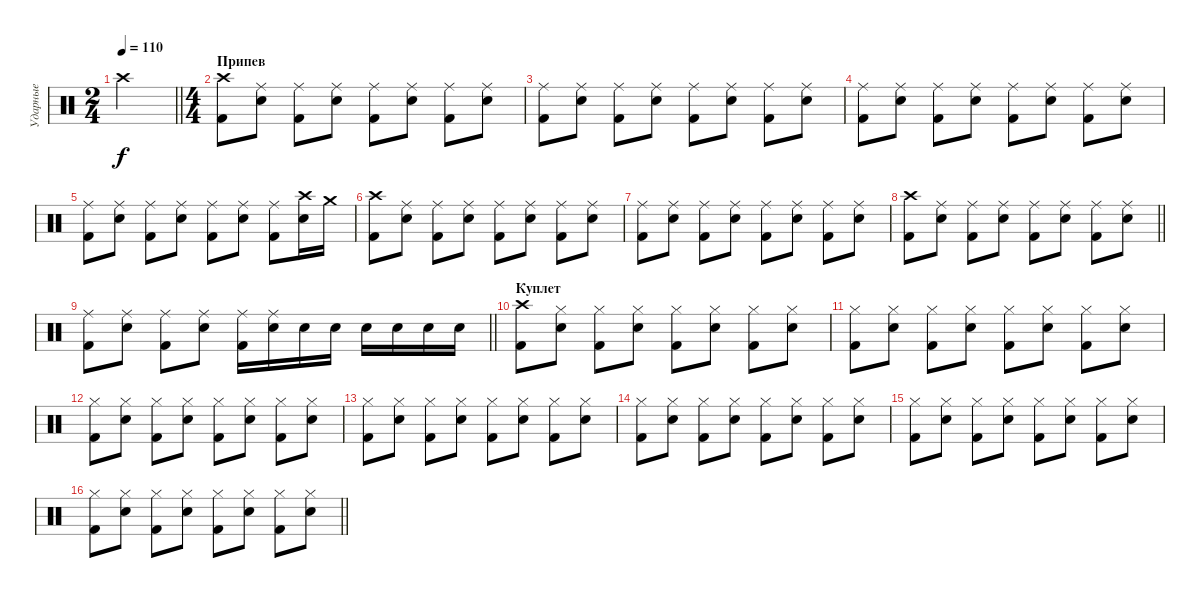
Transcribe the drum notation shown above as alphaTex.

\track ("Ударные" "Ударные") {instrument percussion}
\staff {score}
\articulation defaults
\ts (2 4)
\section ("" "")
\tempo 110
\clef neutral
\barLineRight lightlight
\ks c "Crash high (hit)".2{dy f}
|
\ts (4 4)
\section ("" "Припев")
("Crash high (hit)" "Kick (hit) 2").8 ("Ride (middle)" "Electric Snare (hit)").8 ("Ride (middle)" "Kick (hit) 2").8 ("Ride (middle)" "Electric Snare (hit)").8 ("Ride (middle)" "Kick (hit) 2").8 ("Ride (middle)" "Electric Snare (hit)").8 ("Ride (middle)" "Kick (hit) 2").8 ("Ride (middle)" "Electric Snare (hit)").8 |
("Ride (middle)" "Kick (hit) 2").8 ("Ride (middle)" "Electric Snare (hit)").8 ("Ride (middle)" "Kick (hit) 2").8 ("Ride (middle)" "Electric Snare (hit)").8 ("Ride (middle)" "Kick (hit) 2").8 ("Ride (middle)" "Electric Snare (hit)").8 ("Ride (middle)" "Kick (hit) 2").8 ("Ride (middle)" "Electric Snare (hit)").8 |
("Ride (middle)" "Kick (hit) 2").8 ("Ride (middle)" "Electric Snare (hit)").8 ("Ride (middle)" "Kick (hit) 2").8 ("Ride (middle)" "Electric Snare (hit)").8 ("Ride (middle)" "Kick (hit) 2").8 ("Ride (middle)" "Electric Snare (hit)").8 ("Ride (middle)" "Kick (hit) 2").8 ("Ride (middle)" "Electric Snare (hit)").8 |
("Ride (middle)" "Kick (hit) 2").8 ("Ride (middle)" "Electric Snare (hit)").8 ("Ride (middle)" "Kick (hit) 2").8 ("Ride (middle)" "Electric Snare (hit)").8 ("Ride (middle)" "Kick (hit) 2").8 ("Ride (middle)" "Electric Snare (hit)").8 ("Ride (middle)" "Kick (hit) 2").8 ("Crash high (hit)" "Electric Snare (hit)").16 "Crash medium (hit)".16 |
("Crash high (hit)" "Kick (hit) 2").8 ("Ride (middle)" "Electric Snare (hit)").8 ("Ride (middle)" "Kick (hit) 2").8 ("Ride (middle)" "Electric Snare (hit)").8 ("Ride (middle)" "Kick (hit) 2").8 ("Ride (middle)" "Electric Snare (hit)").8 ("Ride (middle)" "Kick (hit) 2").8 ("Ride (middle)" "Electric Snare (hit)").8 |
("Ride (middle)" "Kick (hit) 2").8 ("Ride (middle)" "Electric Snare (hit)").8 ("Ride (middle)" "Kick (hit) 2").8 ("Ride (middle)" "Electric Snare (hit)").8 ("Ride (middle)" "Kick (hit) 2").8 ("Ride (middle)" "Electric Snare (hit)").8 ("Ride (middle)" "Kick (hit) 2").8 ("Ride (middle)" "Electric Snare (hit)").8 |
\barLineRight lightlight
("Crash high (hit)" "Kick (hit) 2").8 ("Ride (middle)" "Electric Snare (hit)").8 ("Ride (middle)" "Kick (hit) 2").8 ("Ride (middle)" "Electric Snare (hit)").8 ("Ride (middle)" "Kick (hit) 2").8 ("Ride (middle)" "Electric Snare (hit)").8 ("Ride (middle)" "Kick (hit) 2").8 ("Ride (middle)" "Electric Snare (hit)").8 |
\section ("" "")
\barLineRight lightlight
("Ride (middle)" "Kick (hit) 2").8 ("Ride (middle)" "Electric Snare (hit)").8 ("Ride (middle)" "Kick (hit) 2").8 ("Ride (middle)" "Electric Snare (hit)").8 ("Ride (middle)" "Kick (hit) 2").16 ("Ride (middle)" "Electric Snare (hit)").16 "Electric Snare (hit)".16 "Electric Snare (hit)".16 "Electric Snare (hit)".16 "Electric Snare (hit)".16 "Electric Snare (hit)".16 "Electric Snare (hit)".16 |
\section ("" "Куплет")
("Crash high (hit)" "Kick (hit) 2").8 ("Hi-Hat (closed)" "Electric Snare (hit)").8 ("Hi-Hat (closed)" "Kick (hit) 2").8 ("Hi-Hat (closed)" "Electric Snare (hit)").8 ("Hi-Hat (closed)" "Kick (hit) 2").8 ("Hi-Hat (closed)" "Electric Snare (hit)").8 ("Hi-Hat (closed)" "Kick (hit) 2").8 ("Hi-Hat (closed)" "Electric Snare (hit)").8 |
("Hi-Hat (closed)" "Kick (hit) 2").8 ("Hi-Hat (closed)" "Electric Snare (hit)").8 ("Hi-Hat (closed)" "Kick (hit) 2").8 ("Hi-Hat (closed)" "Electric Snare (hit)").8 ("Hi-Hat (closed)" "Kick (hit) 2").8 ("Hi-Hat (closed)" "Electric Snare (hit)").8 ("Hi-Hat (closed)" "Kick (hit) 2").8 ("Hi-Hat (closed)" "Electric Snare (hit)").8 |
("Hi-Hat (closed)" "Kick (hit) 2").8 ("Hi-Hat (closed)" "Electric Snare (hit)").8 ("Hi-Hat (closed)" "Kick (hit) 2").8 ("Hi-Hat (closed)" "Electric Snare (hit)").8 ("Hi-Hat (closed)" "Kick (hit) 2").8 ("Hi-Hat (closed)" "Electric Snare (hit)").8 ("Hi-Hat (closed)" "Kick (hit) 2").8 ("Hi-Hat (closed)" "Electric Snare (hit)").8 |
("Hi-Hat (closed)" "Kick (hit) 2").8 ("Hi-Hat (closed)" "Electric Snare (hit)").8 ("Hi-Hat (closed)" "Kick (hit) 2").8 ("Hi-Hat (closed)" "Electric Snare (hit)").8 ("Hi-Hat (closed)" "Kick (hit) 2").8 ("Hi-Hat (closed)" "Electric Snare (hit)").8 ("Hi-Hat (closed)" "Kick (hit) 2").8 ("Hi-Hat (closed)" "Electric Snare (hit)").8 |
("Hi-Hat (closed)" "Kick (hit) 2").8 ("Hi-Hat (closed)" "Electric Snare (hit)").8 ("Hi-Hat (closed)" "Kick (hit) 2").8 ("Hi-Hat (closed)" "Electric Snare (hit)").8 ("Hi-Hat (closed)" "Kick (hit) 2").8 ("Hi-Hat (closed)" "Electric Snare (hit)").8 ("Hi-Hat (closed)" "Kick (hit) 2").8 ("Hi-Hat (closed)" "Electric Snare (hit)").8 |
("Hi-Hat (closed)" "Kick (hit) 2").8 ("Hi-Hat (closed)" "Electric Snare (hit)").8 ("Hi-Hat (closed)" "Kick (hit) 2").8 ("Hi-Hat (closed)" "Electric Snare (hit)").8 ("Hi-Hat (closed)" "Kick (hit) 2").8 ("Hi-Hat (closed)" "Electric Snare (hit)").8 ("Hi-Hat (closed)" "Kick (hit) 2").8 ("Hi-Hat (closed)" "Electric Snare (hit)").8 |
\barLineRight lightlight
("Hi-Hat (closed)" "Kick (hit) 2").8 ("Hi-Hat (closed)" "Electric Snare (hit)").8 ("Hi-Hat (closed)" "Kick (hit) 2").8 ("Hi-Hat (closed)" "Electric Snare (hit)").8 ("Hi-Hat (closed)" "Kick (hit) 2").8 ("Hi-Hat (closed)" "Electric Snare (hit)").8 ("Hi-Hat (closed)" "Kick (hit) 2").8 ("Hi-Hat (closed)" "Electric Snare (hit)").8
